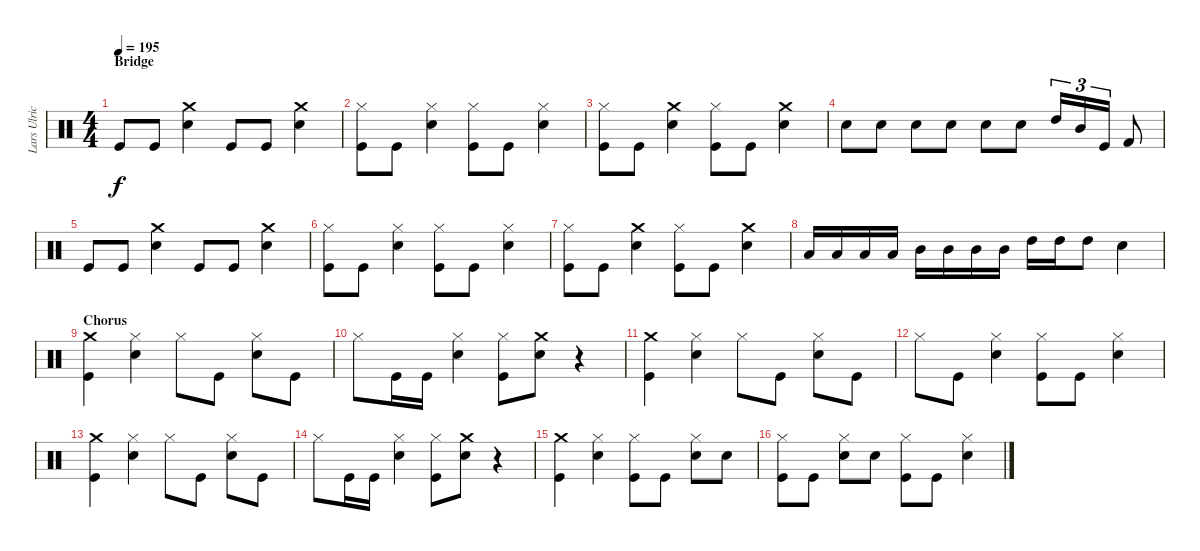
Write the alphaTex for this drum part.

\track ("Lars Ulrich (Drums)" "Lars Ulric") {instrument percussion}
\staff {score}
\articulation defaults
\ts (4 4)
\section ("" "Bridge")
\tempo 195
\clef neutral
\ks c "Kick (hit)".8{dy f} "Kick (hit)".8
("Crash medium (hit)" "Snare (hit) 2").4 "Kick (hit)".8 "Kick (hit)".8 ("Crash medium (hit)" "Snare (hit) 2").4 |
("Kick (hit)" "Hi-Hat (closed)").8 "Kick (hit)".8 ("Snare (hit) 2" "Hi-Hat (closed)").4 ("Kick (hit)" "Hi-Hat (closed)").8 "Kick (hit)".8 ("Snare (hit) 2" "Hi-Hat (closed)").4 |
("Kick (hit)" "Hi-Hat (closed)").8 "Kick (hit)".8 ("Snare (hit) 2" "Crash medium (hit)").4 ("Kick (hit)" "Hi-Hat (closed)").8 "Kick (hit)".8 ("Crash medium (hit)" "Snare (hit) 2").4 |
"Snare (hit) 2".8 "Snare (hit) 2".8 "Snare (hit) 2".8 "Snare (hit) 2".8 "Snare (hit) 2".8 "Snare (hit) 2".8 "High Tom (hit)".16{tu (3 2)} "Mid Tom (hit)".16{tu (3 2)} "Kick (hit)".16{tu (3 2)} "Kick (hit) 2".8 |
"Kick (hit)".8 "Kick (hit)".8 ("Crash medium (hit)" "Snare (hit) 2").4 "Kick (hit)".8 "Kick (hit)".8 ("Crash medium (hit)" "Snare (hit) 2").4 |
("Kick (hit)" "Hi-Hat (closed)").8 "Kick (hit)".8 ("Snare (hit) 2" "Hi-Hat (closed)").4 ("Kick (hit)" "Hi-Hat (closed)").8 "Kick (hit)".8 ("Snare (hit) 2" "Hi-Hat (closed)").4 |
("Kick (hit)" "Hi-Hat (closed)").8 "Kick (hit)".8 ("Snare (hit) 2" "Crash medium (hit)").4 ("Kick (hit)" "Hi-Hat (closed)").8 "Kick (hit)".8 ("Crash medium (hit)" "Snare (hit) 2").4 |
"Low Tom (hit)".16 "Low Tom (hit)".16 "Low Tom (hit)".16 "Low Tom (hit)".16 "Mid Tom (hit)".16 "Mid Tom (hit)".16 "Mid Tom (hit)".16 "Mid Tom (hit)".16 "High Tom (hit)".16 "High Tom (hit)".16 "High Tom (hit)".8 "Snare (hit) 2".4 |
\section ("" "Chorus")
("Kick (hit)" "Crash medium (hit)").4 ("Hi-Hat (closed)" "Snare (hit) 2").4 "Hi-Hat (closed)".8 "Kick (hit)".8 ("Snare (hit) 2" "Hi-Hat (closed)").8 "Kick (hit)".8 |
"Hi-Hat (closed)".8 "Kick (hit)".16 "Kick (hit)".16 ("Snare (hit) 2" "Hi-Hat (closed)").4 ("Kick (hit)" "Hi-Hat (closed)").8 ("Snare (hit) 2" "Crash medium (hit)").8 r.4 |
("Kick (hit)" "Crash medium (hit)").4 ("Hi-Hat (closed)" "Snare (hit) 2").4 "Hi-Hat (closed)".8 "Kick (hit)".8 ("Snare (hit) 2" "Hi-Hat (closed)").8 "Kick (hit)".8 |
"Hi-Hat (closed)".8 "Kick (hit)".8 ("Snare (hit) 2" "Hi-Hat (closed)").4 ("Hi-Hat (closed)" "Kick (hit)").8 "Kick (hit)".8 ("Snare (hit) 2" "Hi-Hat (closed)").4 |
("Kick (hit)" "Crash medium (hit)").4 ("Hi-Hat (closed)" "Snare (hit) 2").4 "Hi-Hat (closed)".8 "Kick (hit)".8 ("Snare (hit) 2" "Hi-Hat (closed)").8 "Kick (hit)".8 |
"Hi-Hat (closed)".8 "Kick (hit)".16 "Kick (hit)".16 ("Snare (hit) 2" "Hi-Hat (closed)").4 ("Kick (hit)" "Hi-Hat (closed)").8 ("Snare (hit) 2" "Crash medium (hit)").8 r.4 |
("Kick (hit)" "Crash medium (hit)").4 ("Hi-Hat (closed)" "Snare (hit) 2").4 ("Kick (hit)" "Hi-Hat (closed)").8 "Kick (hit)".8 ("Hi-Hat (closed)" "Snare (hit) 2").8 "Snare (hit) 2".8 |
("Kick (hit)" "Hi-Hat (closed)").8 "Kick (hit)".8 ("Hi-Hat (closed)" "Snare (hit) 2").8 "Snare (hit) 2".8 ("Kick (hit)" "Hi-Hat (closed)").8 "Kick (hit)".8 ("Snare (hit) 2" "Hi-Hat (closed)").4
